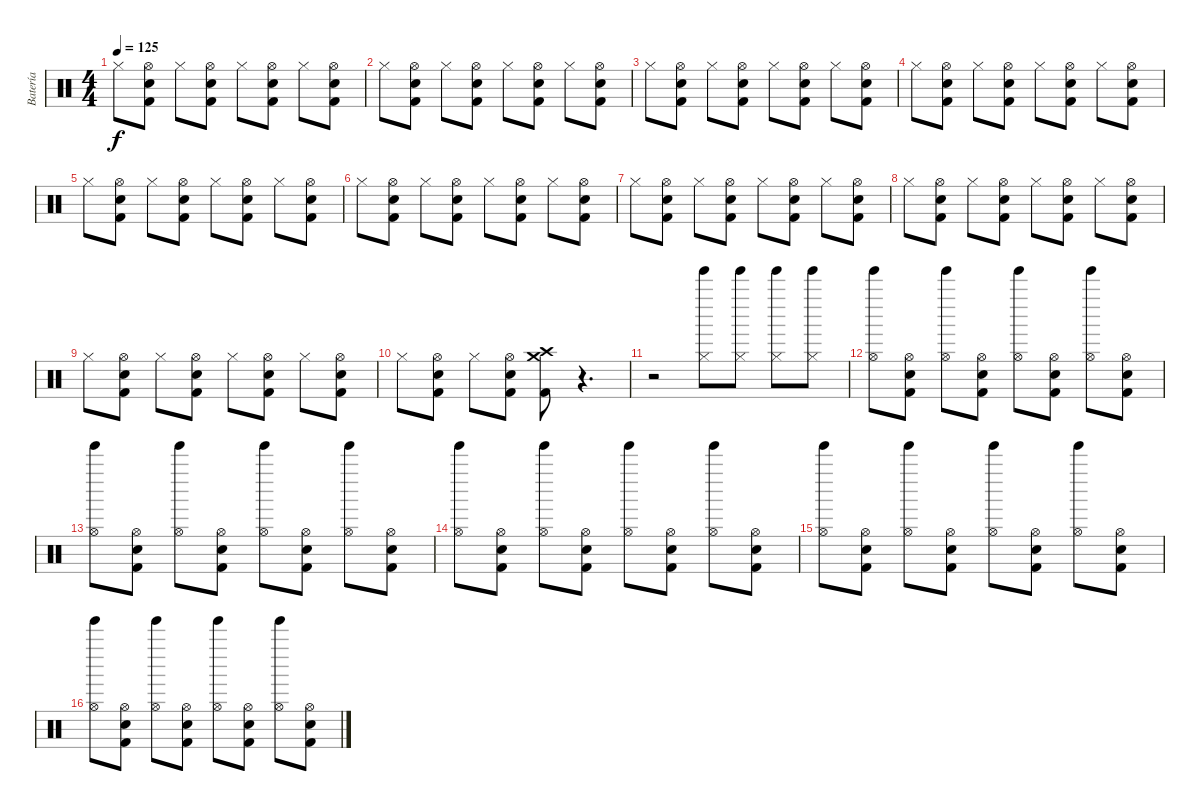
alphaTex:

\track ("Batería" "Batería") {instrument percussion}
\staff {score}
\articulation defaults
\ts (4 4)
\tempo 125
\clef neutral
\ks c "Hi-Hat (closed)".8{dy f}
("Snare (hit) 2" "Hi-Hat (open)" "Kick (hit) 2").8 "Hi-Hat (closed)".8 ("Snare (hit) 2" "Hi-Hat (open)" "Kick (hit) 2").8 "Hi-Hat (closed)".8 ("Snare (hit) 2" "Hi-Hat (open)" "Kick (hit) 2").8 "Hi-Hat (closed)".8 ("Snare (hit) 2" "Hi-Hat (open)" "Kick (hit) 2").8 |
"Hi-Hat (closed)".8 ("Snare (hit) 2" "Hi-Hat (open)" "Kick (hit) 2").8 "Hi-Hat (closed)".8 ("Snare (hit) 2" "Hi-Hat (open)" "Kick (hit) 2").8 "Hi-Hat (closed)".8 ("Snare (hit) 2" "Hi-Hat (open)" "Kick (hit) 2").8 "Hi-Hat (closed)".8 ("Snare (hit) 2" "Hi-Hat (open)" "Kick (hit) 2").8 |
"Hi-Hat (closed)".8 ("Snare (hit) 2" "Hi-Hat (open)" "Kick (hit) 2").8 "Hi-Hat (closed)".8 ("Snare (hit) 2" "Hi-Hat (open)" "Kick (hit) 2").8 "Hi-Hat (closed)".8 ("Snare (hit) 2" "Hi-Hat (open)" "Kick (hit) 2").8 "Hi-Hat (closed)".8 ("Snare (hit) 2" "Hi-Hat (open)" "Kick (hit) 2").8 |
"Hi-Hat (closed)".8 ("Snare (hit) 2" "Hi-Hat (open)" "Kick (hit) 2").8 "Hi-Hat (closed)".8 ("Snare (hit) 2" "Hi-Hat (open)" "Kick (hit) 2").8 "Hi-Hat (closed)".8 ("Snare (hit) 2" "Hi-Hat (open)" "Kick (hit) 2").8 "Hi-Hat (closed)".8 ("Snare (hit) 2" "Hi-Hat (open)" "Kick (hit) 2").8 |
"Hi-Hat (closed)".8 ("Snare (hit) 2" "Hi-Hat (open)" "Kick (hit) 2").8 "Hi-Hat (closed)".8 ("Snare (hit) 2" "Hi-Hat (open)" "Kick (hit) 2").8 "Hi-Hat (closed)".8 ("Snare (hit) 2" "Hi-Hat (open)" "Kick (hit) 2").8 "Hi-Hat (closed)".8 ("Snare (hit) 2" "Hi-Hat (open)" "Kick (hit) 2").8 |
"Hi-Hat (closed)".8 ("Snare (hit) 2" "Hi-Hat (open)" "Kick (hit) 2").8 "Hi-Hat (closed)".8 ("Snare (hit) 2" "Hi-Hat (open)" "Kick (hit) 2").8 "Hi-Hat (closed)".8 ("Snare (hit) 2" "Hi-Hat (open)" "Kick (hit) 2").8 "Hi-Hat (closed)".8 ("Snare (hit) 2" "Hi-Hat (open)" "Kick (hit) 2").8 |
"Hi-Hat (closed)".8 ("Snare (hit) 2" "Hi-Hat (open)" "Kick (hit) 2").8 "Hi-Hat (closed)".8 ("Snare (hit) 2" "Hi-Hat (open)" "Kick (hit) 2").8 "Hi-Hat (closed)".8 ("Snare (hit) 2" "Hi-Hat (open)" "Kick (hit) 2").8 "Hi-Hat (closed)".8 ("Snare (hit) 2" "Hi-Hat (open)" "Kick (hit) 2").8 |
"Hi-Hat (closed)".8 ("Snare (hit) 2" "Hi-Hat (open)" "Kick (hit) 2").8 "Hi-Hat (closed)".8 ("Snare (hit) 2" "Hi-Hat (open)" "Kick (hit) 2").8 "Hi-Hat (closed)".8 ("Snare (hit) 2" "Hi-Hat (open)" "Kick (hit) 2").8 "Hi-Hat (closed)".8 ("Snare (hit) 2" "Hi-Hat (open)" "Kick (hit) 2").8 |
"Hi-Hat (closed)".8 ("Snare (hit) 2" "Hi-Hat (open)" "Kick (hit) 2").8 "Hi-Hat (closed)".8 ("Snare (hit) 2" "Hi-Hat (open)" "Kick (hit) 2").8 "Hi-Hat (closed)".8 ("Snare (hit) 2" "Hi-Hat (open)" "Kick (hit) 2").8 "Hi-Hat (closed)".8 ("Snare (hit) 2" "Hi-Hat (open)" "Kick (hit) 2").8 |
"Hi-Hat (closed)".8 ("Snare (hit) 2" "Hi-Hat (open)" "Kick (hit) 2").8 "Hi-Hat (closed)".8 ("Snare (hit) 2" "Hi-Hat (open)" "Kick (hit) 2").8 ("Crash medium (hit)" "Crash high (hit)" "Kick (hit) 2").8 r.4{d} |
r.2 ("Tinkle Bell (hit)" "Hi-Hat (closed)").8 ("Tinkle Bell (hit)" "Hi-Hat (closed)").8 ("Tinkle Bell (hit)" "Hi-Hat (closed)").8 ("Tinkle Bell (hit)" "Hi-Hat (closed)").8 |
("Tinkle Bell (hit)" "Hi-Hat (open)").8 ("Snare (hit) 2" "Hi-Hat (open)" "Kick (hit) 2").8 ("Tinkle Bell (hit)" "Hi-Hat (open)").8 ("Snare (hit) 2" "Hi-Hat (open)" "Kick (hit) 2").8 ("Tinkle Bell (hit)" "Hi-Hat (open)").8 ("Snare (hit) 2" "Hi-Hat (open)" "Kick (hit) 2").8 ("Tinkle Bell (hit)" "Hi-Hat (open)").8 ("Snare (hit) 2" "Hi-Hat (open)" "Kick (hit) 2").8 |
("Tinkle Bell (hit)" "Hi-Hat (open)").8 ("Snare (hit) 2" "Hi-Hat (open)" "Kick (hit) 2").8 ("Tinkle Bell (hit)" "Hi-Hat (open)").8 ("Snare (hit) 2" "Hi-Hat (open)" "Kick (hit) 2").8 ("Tinkle Bell (hit)" "Hi-Hat (open)").8 ("Snare (hit) 2" "Hi-Hat (open)" "Kick (hit) 2").8 ("Tinkle Bell (hit)" "Hi-Hat (open)").8 ("Snare (hit) 2" "Hi-Hat (open)" "Kick (hit) 2").8 |
("Tinkle Bell (hit)" "Hi-Hat (open)").8 ("Snare (hit) 2" "Hi-Hat (open)" "Kick (hit) 2").8 ("Tinkle Bell (hit)" "Hi-Hat (open)").8 ("Snare (hit) 2" "Hi-Hat (open)" "Kick (hit) 2").8 ("Tinkle Bell (hit)" "Hi-Hat (open)").8 ("Snare (hit) 2" "Hi-Hat (open)" "Kick (hit) 2").8 ("Tinkle Bell (hit)" "Hi-Hat (open)").8 ("Snare (hit) 2" "Hi-Hat (open)" "Kick (hit) 2").8 |
("Tinkle Bell (hit)" "Hi-Hat (open)").8 ("Snare (hit) 2" "Hi-Hat (open)" "Kick (hit) 2").8 ("Tinkle Bell (hit)" "Hi-Hat (open)").8 ("Snare (hit) 2" "Hi-Hat (open)" "Kick (hit) 2").8 ("Tinkle Bell (hit)" "Hi-Hat (open)").8 ("Snare (hit) 2" "Hi-Hat (open)" "Kick (hit) 2").8 ("Tinkle Bell (hit)" "Hi-Hat (open)").8 ("Snare (hit) 2" "Hi-Hat (open)" "Kick (hit) 2").8 |
("Tinkle Bell (hit)" "Hi-Hat (open)").8 ("Snare (hit) 2" "Hi-Hat (open)" "Kick (hit) 2").8 ("Tinkle Bell (hit)" "Hi-Hat (open)").8 ("Snare (hit) 2" "Hi-Hat (open)" "Kick (hit) 2").8 ("Tinkle Bell (hit)" "Hi-Hat (open)").8 ("Snare (hit) 2" "Hi-Hat (open)" "Kick (hit) 2").8 ("Tinkle Bell (hit)" "Hi-Hat (open)").8 ("Snare (hit) 2" "Hi-Hat (open)" "Kick (hit) 2").8
